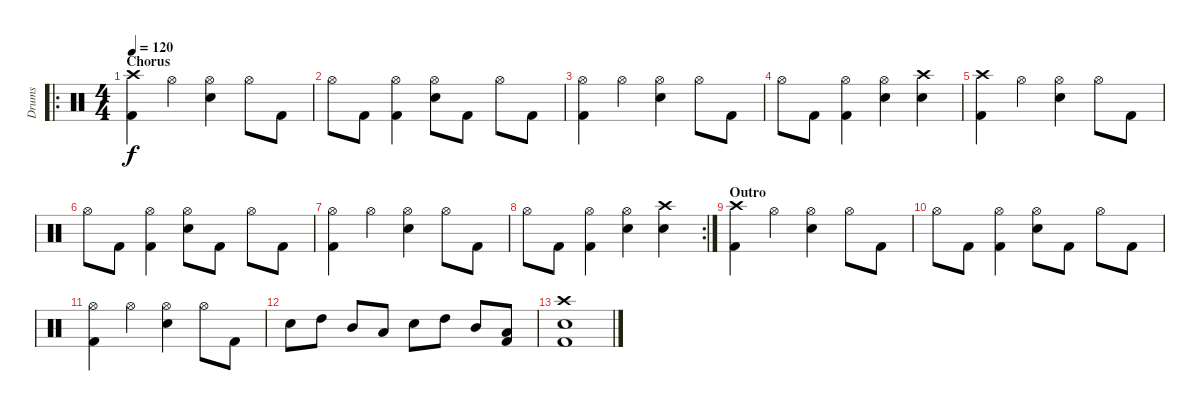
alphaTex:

\track ("Drums" "Drums") {instrument percussion}
\staff {score}
\articulation defaults
\ro
\ts (4 4)
\section ("" "Chorus")
\tempo 120
\clef neutral
\ks c
("Crash high (hit)" "Kick (hit) 2").4{dy f} "Hi-Hat (open)".4 ("Hi-Hat (open)" "Electric Snare (hit)").4 "Hi-Hat (open)".8 "Kick (hit) 2".8 |
"Hi-Hat (open)".8 "Kick (hit) 2".8 ("Hi-Hat (open)" "Kick (hit) 2").4 ("Hi-Hat (open)" "Electric Snare (hit)").8 "Kick (hit) 2".8 "Hi-Hat (open)".8 "Kick (hit) 2".8 |
("Hi-Hat (open)" "Kick (hit) 2").4 "Hi-Hat (open)".4 ("Hi-Hat (open)" "Electric Snare (hit)").4 "Hi-Hat (open)".8 "Kick (hit) 2".8 |
"Hi-Hat (open)".8 "Kick (hit) 2".8 ("Hi-Hat (open)" "Kick (hit) 2").4 ("Hi-Hat (open)" "Electric Snare (hit)").4 ("Crash high (hit)" "Electric Snare (hit)").4 |
("Crash high (hit)" "Kick (hit) 2").4 "Hi-Hat (open)".4 ("Hi-Hat (open)" "Electric Snare (hit)").4 "Hi-Hat (open)".8 "Kick (hit) 2".8 |
"Hi-Hat (open)".8 "Kick (hit) 2".8 ("Hi-Hat (open)" "Kick (hit) 2").4 ("Hi-Hat (open)" "Electric Snare (hit)").8 "Kick (hit) 2".8 "Hi-Hat (open)".8 "Kick (hit) 2".8 |
("Hi-Hat (open)" "Kick (hit) 2").4 "Hi-Hat (open)".4 ("Hi-Hat (open)" "Electric Snare (hit)").4 "Hi-Hat (open)".8 "Kick (hit) 2".8 |
\rc 2 "Hi-Hat (open)".8 "Kick (hit) 2".8
("Hi-Hat (open)" "Kick (hit) 2").4 ("Hi-Hat (open)" "Electric Snare (hit)").4 ("Crash high (hit)" "Electric Snare (hit)").4 |
\section ("" "Outro")
("Crash high (hit)" "Kick (hit) 2").4 "Hi-Hat (open)".4 ("Hi-Hat (open)" "Electric Snare (hit)").4 "Hi-Hat (open)".8 "Kick (hit) 2".8 |
"Hi-Hat (open)".8 "Kick (hit) 2".8 ("Hi-Hat (open)" "Kick (hit) 2").4 ("Hi-Hat (open)" "Electric Snare (hit)").8 "Kick (hit) 2".8 "Hi-Hat (open)".8 "Kick (hit) 2".8 |
("Hi-Hat (open)" "Kick (hit) 2").4 "Hi-Hat (open)".4 ("Hi-Hat (open)" "Electric Snare (hit)").4 "Hi-Hat (open)".8 "Kick (hit) 2".8 |
"Electric Snare (hit)".8 "High Tom (hit)".8 "Mid Tom (hit)".8 "Low Tom (hit)".8 "Electric Snare (hit)".8 "High Tom (hit)".8 "Mid Tom (hit)".8 ("Low Tom (hit)" "Kick (hit) 2").8 |
("Crash high (hit)" "Electric Snare (hit)" "Kick (hit) 2").1
